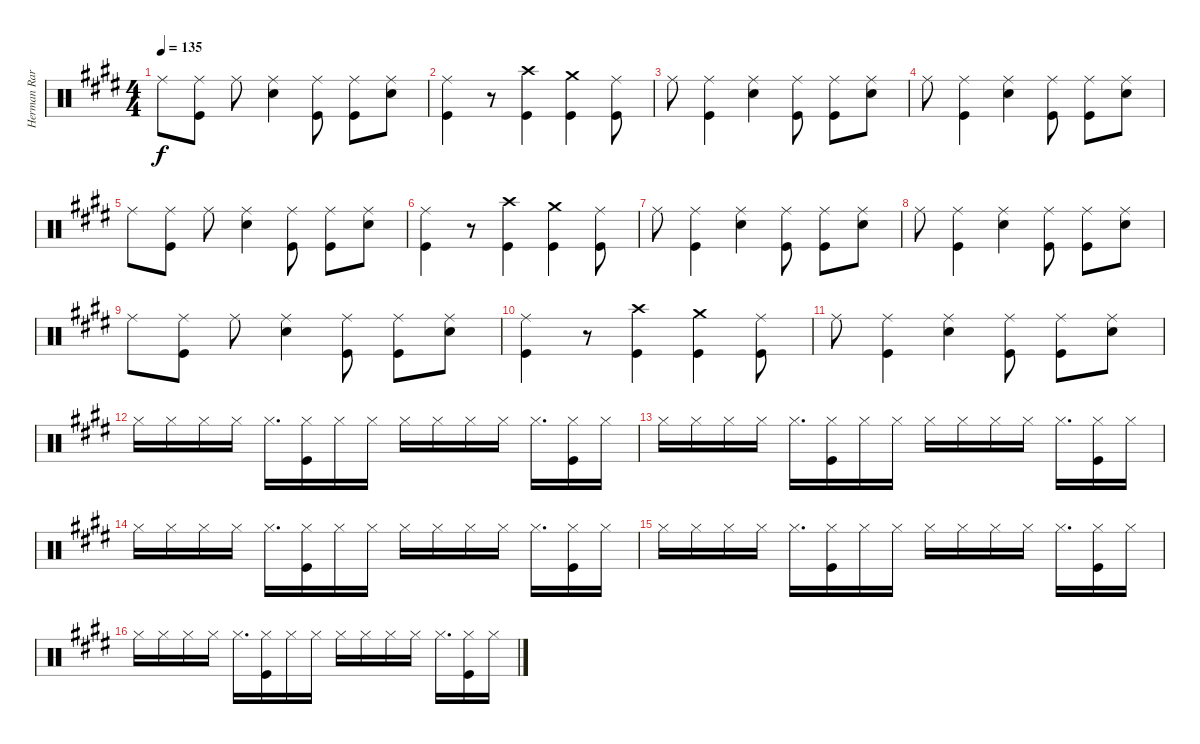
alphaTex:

\track ("Herman Rarebell Drums" "Herman Rar") {instrument percussion}
\staff {score}
\articulation defaults
\ts (4 4)
\tempo 135
\clef neutral
\ks e "Ride (middle)".8{dy f}
("Ride (middle)" "Kick (hit)").8 "Ride (middle)".8 ("Ride (middle)" "Snare (hit) 2").4 ("Ride (middle)" "Kick (hit)").8 ("Ride (middle)" "Kick (hit)").8 ("Ride (middle)" "Snare (hit) 2").8 |
("Ride (middle)" "Kick (hit)").4 r.8 ("Crash high (hit)" "Kick (hit)").4 ("Crash medium (hit)" "Kick (hit)").4 ("Ride (middle)" "Kick (hit)").8 |
"Ride (middle)".8 ("Ride (middle)" "Kick (hit)").4 ("Ride (middle)" "Snare (hit) 2").4 ("Ride (middle)" "Kick (hit)").8 ("Ride (middle)" "Kick (hit)").8 ("Ride (middle)" "Snare (hit) 2").8 |
"Ride (middle)".8 ("Ride (middle)" "Kick (hit)").4 ("Ride (middle)" "Snare (hit) 2").4 ("Ride (middle)" "Kick (hit)").8 ("Ride (middle)" "Kick (hit)").8 ("Ride (middle)" "Snare (hit) 2").8 |
"Ride (middle)".8 ("Ride (middle)" "Kick (hit)").8 "Ride (middle)".8 ("Ride (middle)" "Snare (hit) 2").4 ("Ride (middle)" "Kick (hit)").8 ("Ride (middle)" "Kick (hit)").8 ("Ride (middle)" "Snare (hit) 2").8 |
("Ride (middle)" "Kick (hit)").4 r.8 ("Crash high (hit)" "Kick (hit)").4 ("Crash medium (hit)" "Kick (hit)").4 ("Ride (middle)" "Kick (hit)").8 |
"Ride (middle)".8 ("Ride (middle)" "Kick (hit)").4 ("Ride (middle)" "Snare (hit) 2").4 ("Ride (middle)" "Kick (hit)").8 ("Ride (middle)" "Kick (hit)").8 ("Ride (middle)" "Snare (hit) 2").8 |
"Ride (middle)".8 ("Ride (middle)" "Kick (hit)").4 ("Ride (middle)" "Snare (hit) 2").4 ("Ride (middle)" "Kick (hit)").8 ("Ride (middle)" "Kick (hit)").8 ("Ride (middle)" "Snare (hit) 2").8 |
"Ride (middle)".8 ("Ride (middle)" "Kick (hit)").8 "Ride (middle)".8 ("Ride (middle)" "Snare (hit) 2").4 ("Ride (middle)" "Kick (hit)").8 ("Ride (middle)" "Kick (hit)").8 ("Ride (middle)" "Snare (hit) 2").8 |
("Ride (middle)" "Kick (hit)").4 r.8 ("Crash high (hit)" "Kick (hit)").4 ("Crash medium (hit)" "Kick (hit)").4 ("Ride (middle)" "Kick (hit)").8 |
"Ride (middle)".8 ("Ride (middle)" "Kick (hit)").4 ("Ride (middle)" "Snare (hit) 2").4 ("Ride (middle)" "Kick (hit)").8 ("Ride (middle)" "Kick (hit)").8 ("Ride (middle)" "Snare (hit) 2").8 |
"Hi-Hat (closed)".16 "Hi-Hat (closed)".16 "Hi-Hat (closed)".16 "Hi-Hat (closed)".16 "Hi-Hat (closed)".16{d} ("Hi-Hat (closed)" "Kick (hit)").16 "Hi-Hat (closed)".16 "Hi-Hat (closed)".16 "Hi-Hat (closed)".16 "Hi-Hat (closed)".16 "Hi-Hat (closed)".16 "Hi-Hat (closed)".16 "Hi-Hat (closed)".16{d} ("Hi-Hat (closed)" "Kick (hit)").16 "Hi-Hat (closed)".16 |
"Hi-Hat (closed)".16 "Hi-Hat (closed)".16 "Hi-Hat (closed)".16 "Hi-Hat (closed)".16 "Hi-Hat (closed)".16{d} ("Hi-Hat (closed)" "Kick (hit)").16 "Hi-Hat (closed)".16 "Hi-Hat (closed)".16 "Hi-Hat (closed)".16 "Hi-Hat (closed)".16 "Hi-Hat (closed)".16 "Hi-Hat (closed)".16 "Hi-Hat (closed)".16{d} ("Hi-Hat (closed)" "Kick (hit)").16 "Hi-Hat (closed)".16 |
"Hi-Hat (closed)".16 "Hi-Hat (closed)".16 "Hi-Hat (closed)".16 "Hi-Hat (closed)".16 "Hi-Hat (closed)".16{d} ("Hi-Hat (closed)" "Kick (hit)").16 "Hi-Hat (closed)".16 "Hi-Hat (closed)".16 "Hi-Hat (closed)".16 "Hi-Hat (closed)".16 "Hi-Hat (closed)".16 "Hi-Hat (closed)".16 "Hi-Hat (closed)".16{d} ("Hi-Hat (closed)" "Kick (hit)").16 "Hi-Hat (closed)".16 |
"Hi-Hat (closed)".16 "Hi-Hat (closed)".16 "Hi-Hat (closed)".16 "Hi-Hat (closed)".16 "Hi-Hat (closed)".16{d} ("Hi-Hat (closed)" "Kick (hit)").16 "Hi-Hat (closed)".16 "Hi-Hat (closed)".16 "Hi-Hat (closed)".16 "Hi-Hat (closed)".16 "Hi-Hat (closed)".16 "Hi-Hat (closed)".16 "Hi-Hat (closed)".16{d} ("Hi-Hat (closed)" "Kick (hit)").16 "Hi-Hat (closed)".16 |
"Hi-Hat (closed)".16 "Hi-Hat (closed)".16 "Hi-Hat (closed)".16 "Hi-Hat (closed)".16 "Hi-Hat (closed)".16{d} ("Hi-Hat (closed)" "Kick (hit)").16 "Hi-Hat (closed)".16 "Hi-Hat (closed)".16 "Hi-Hat (closed)".16 "Hi-Hat (closed)".16 "Hi-Hat (closed)".16 "Hi-Hat (closed)".16 "Hi-Hat (closed)".16{d} ("Hi-Hat (closed)" "Kick (hit)").16 "Hi-Hat (closed)".16
